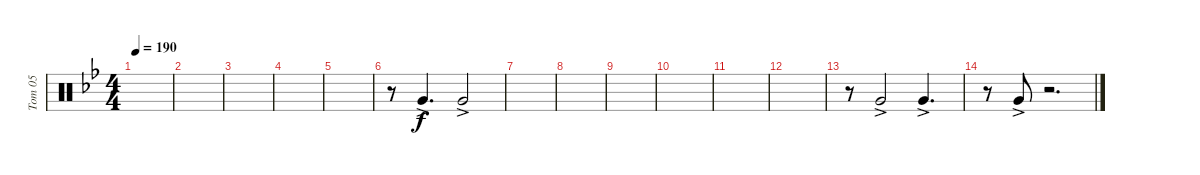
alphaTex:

\track ("Tom 05" "Tom 05") {instrument percussion}
\staff {score}
\articulation defaults
\ts (4 4)
\tempo 190
\clef neutral
\ks bb
|
|
|
|
|
r.8 "Very Low Tom (hit)"{ac}.4{d} "Very Low Tom (hit)"{ac}.2 |
|
|
|
|
|
|
r.8 "Very Low Tom (hit)"{ac}.2 "Very Low Tom (hit)"{ac}.4{d} |
r.8 "Very Low Tom (hit)"{ac}.8 r.2{d}
